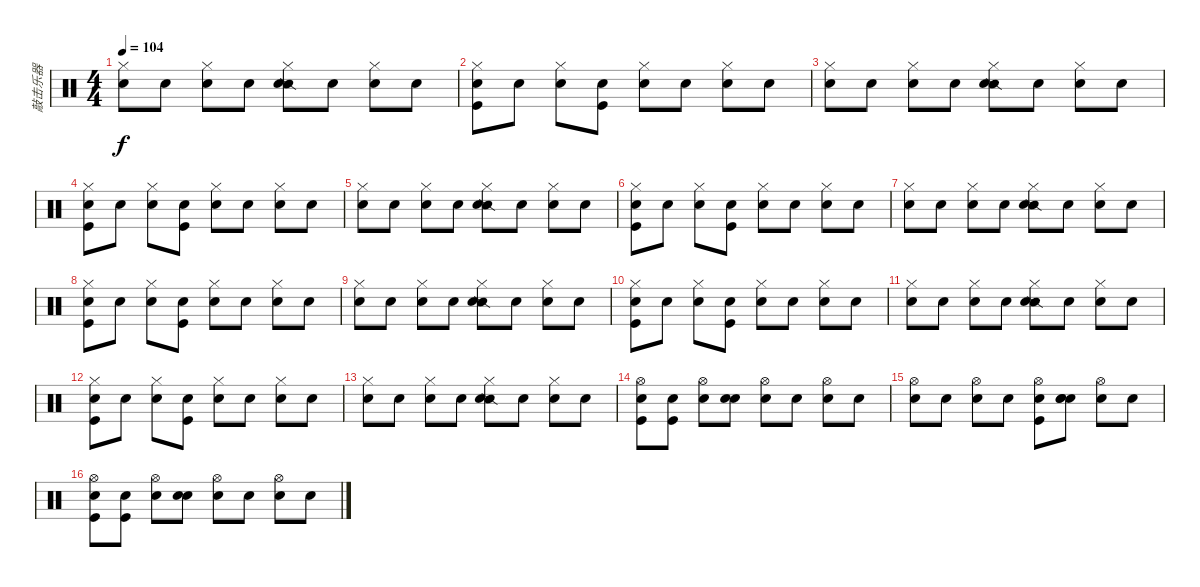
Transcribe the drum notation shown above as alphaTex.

\track ("敲击乐器" "敲击乐器") {instrument percussion}
\staff {score}
\articulation defaults
\ts (4 4)
\tempo 104
\clef neutral
\ks c
("Hi-Hat (closed)" "Snare (hit)").8{dy f} "Snare (hit)".8 ("Hi-Hat (closed)" "Snare (hit)").8 "Snare (hit)".8 ("Snare (side stick) 2" "Hi-Hat (closed)" "Snare (hit)").8 "Snare (hit)".8 ("Hi-Hat (closed)" "Snare (hit)").8 "Snare (hit)".8 |
("Hi-Hat (closed)" "Snare (hit)" "Kick (hit)").8 "Snare (hit)".8 ("Hi-Hat (closed)" "Snare (hit)").8 ("Snare (hit)" "Kick (hit)").8 ("Hi-Hat (closed)" "Snare (hit)").8 "Snare (hit)".8 ("Hi-Hat (closed)" "Snare (hit)").8 "Snare (hit)".8 |
("Hi-Hat (closed)" "Snare (hit)").8 "Snare (hit)".8 ("Hi-Hat (closed)" "Snare (hit)").8 "Snare (hit)".8 ("Snare (side stick) 2" "Hi-Hat (closed)" "Snare (hit)").8 "Snare (hit)".8 ("Hi-Hat (closed)" "Snare (hit)").8 "Snare (hit)".8 |
("Hi-Hat (closed)" "Snare (hit)" "Kick (hit)").8 "Snare (hit)".8 ("Hi-Hat (closed)" "Snare (hit)").8 ("Snare (hit)" "Kick (hit)").8 ("Hi-Hat (closed)" "Snare (hit)").8 "Snare (hit)".8 ("Hi-Hat (closed)" "Snare (hit)").8 "Snare (hit)".8 |
("Hi-Hat (closed)" "Snare (hit)").8 "Snare (hit)".8 ("Hi-Hat (closed)" "Snare (hit)").8 "Snare (hit)".8 ("Snare (side stick) 2" "Hi-Hat (closed)" "Snare (hit)").8 "Snare (hit)".8 ("Hi-Hat (closed)" "Snare (hit)").8 "Snare (hit)".8 |
("Hi-Hat (closed)" "Snare (hit)" "Kick (hit)").8 "Snare (hit)".8 ("Hi-Hat (closed)" "Snare (hit)").8 ("Snare (hit)" "Kick (hit)").8 ("Hi-Hat (closed)" "Snare (hit)").8 "Snare (hit)".8 ("Hi-Hat (closed)" "Snare (hit)").8 "Snare (hit)".8 |
("Hi-Hat (closed)" "Snare (hit)").8 "Snare (hit)".8 ("Hi-Hat (closed)" "Snare (hit)").8 "Snare (hit)".8 ("Snare (side stick) 2" "Hi-Hat (closed)" "Snare (hit)").8 "Snare (hit)".8 ("Hi-Hat (closed)" "Snare (hit)").8 "Snare (hit)".8 |
("Hi-Hat (closed)" "Snare (hit)" "Kick (hit)").8 "Snare (hit)".8 ("Hi-Hat (closed)" "Snare (hit)").8 ("Snare (hit)" "Kick (hit)").8 ("Hi-Hat (closed)" "Snare (hit)").8 "Snare (hit)".8 ("Hi-Hat (closed)" "Snare (hit)").8 "Snare (hit)".8 |
("Hi-Hat (closed)" "Snare (hit)").8 "Snare (hit)".8 ("Hi-Hat (closed)" "Snare (hit)").8 "Snare (hit)".8 ("Snare (side stick) 2" "Hi-Hat (closed)" "Snare (hit)").8 "Snare (hit)".8 ("Hi-Hat (closed)" "Snare (hit)").8 "Snare (hit)".8 |
("Hi-Hat (closed)" "Snare (hit)" "Kick (hit)").8 "Snare (hit)".8 ("Hi-Hat (closed)" "Snare (hit)").8 ("Snare (hit)" "Kick (hit)").8 ("Hi-Hat (closed)" "Snare (hit)").8 "Snare (hit)".8 ("Hi-Hat (closed)" "Snare (hit)").8 "Snare (hit)".8 |
("Hi-Hat (closed)" "Snare (hit)").8 "Snare (hit)".8 ("Hi-Hat (closed)" "Snare (hit)").8 "Snare (hit)".8 ("Snare (side stick) 2" "Hi-Hat (closed)" "Snare (hit)").8 "Snare (hit)".8 ("Hi-Hat (closed)" "Snare (hit)").8 "Snare (hit)".8 |
("Hi-Hat (closed)" "Snare (hit)" "Kick (hit)").8 "Snare (hit)".8 ("Hi-Hat (closed)" "Snare (hit)").8 ("Snare (hit)" "Kick (hit)").8 ("Hi-Hat (closed)" "Snare (hit)").8 "Snare (hit)".8 ("Hi-Hat (closed)" "Snare (hit)").8 "Snare (hit)".8 |
("Hi-Hat (closed)" "Snare (hit)").8 "Snare (hit)".8 ("Hi-Hat (closed)" "Snare (hit)").8 "Snare (hit)".8 ("Snare (side stick) 2" "Hi-Hat (closed)" "Snare (hit)").8 "Snare (hit)".8 ("Hi-Hat (closed)" "Snare (hit)").8 "Snare (hit)".8 |
("Hi-Hat (open)" "Snare (hit)" "Kick (hit)").8{volume 10} ("Snare (hit)" "Kick (hit)").8 ("Hi-Hat (open)" "Snare (hit)").8 ("Snare (hit) 2" "Snare (hit)").8 ("Hi-Hat (open)" "Snare (hit)").8 "Snare (hit)".8 ("Hi-Hat (open)" "Snare (hit)").8 "Snare (hit)".8 |
("Hi-Hat (open)" "Snare (hit)").8 "Snare (hit)".8 ("Hi-Hat (open)" "Snare (hit)").8 "Snare (hit)".8 ("Hi-Hat (open)" "Snare (hit)" "Kick (hit)").8 ("Electric Snare (hit)" "Snare (hit) 2" "Snare (hit)").8 ("Hi-Hat (open)" "Snare (hit)").8 "Snare (hit)".8 |
("Hi-Hat (open)" "Snare (hit)" "Kick (hit)").8 ("Snare (hit)" "Kick (hit)").8 ("Hi-Hat (open)" "Snare (hit)").8 ("Snare (hit) 2" "Snare (hit)").8 ("Hi-Hat (open)" "Snare (hit)").8 "Snare (hit)".8 ("Hi-Hat (open)" "Snare (hit)").8 "Snare (hit)".8
